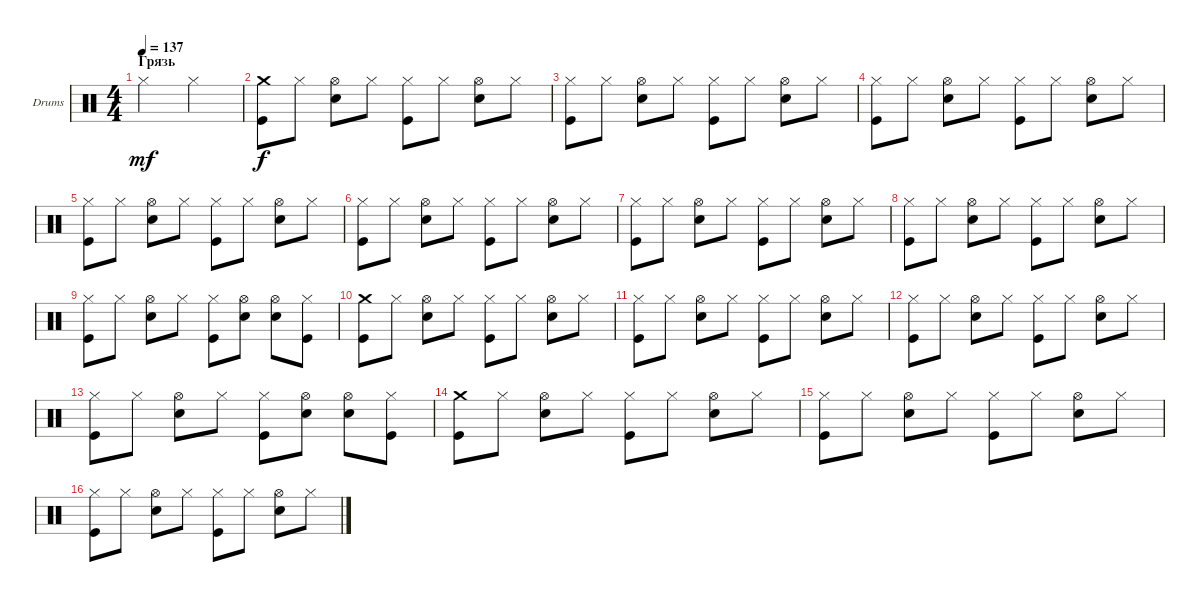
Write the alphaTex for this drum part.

\defaultSystemsLayout 4
\bracketExtendMode nobrackets
\firstSystemTrackNameOrientation horizontal
\otherSystemsTrackNameOrientation horizontal
\track ("Ударные" "Drums") {instrument percussion}
\staff {score}
\articulation defaults
\ts (4 4)
\section ("" "Грязь")
\tempo 137
\clef neutral
\scale
0.474178
\ks c "Hi-Hat (closed)".2{dy mf} "Hi-Hat (closed)".2
|
\scale
0.262911 ("Crash medium (hit)" "Kick (hit)").8{dy f} "Hi-Hat (closed)".8 ("Hi-Hat (open)" "Snare (hit) 2").8 "Hi-Hat (closed)".8 ("Hi-Hat (closed)" "Kick (hit)").8 "Hi-Hat (closed)".8 ("Hi-Hat (open)" "Snare (hit) 2").8 "Hi-Hat (closed)".8 |
\scale
0.262911 ("Hi-Hat (closed)" "Kick (hit)").8 "Hi-Hat (closed)".8 ("Hi-Hat (open)" "Snare (hit) 2").8 "Hi-Hat (closed)".8 ("Hi-Hat (closed)" "Kick (hit)").8 "Hi-Hat (closed)".8 ("Hi-Hat (open)" "Snare (hit) 2").8 "Hi-Hat (closed)".8 |
\scale
0.333333 ("Hi-Hat (closed)" "Kick (hit)").8 "Hi-Hat (closed)".8 ("Hi-Hat (open)" "Snare (hit) 2").8 "Hi-Hat (closed)".8 ("Hi-Hat (closed)" "Kick (hit)").8 "Hi-Hat (closed)".8 ("Hi-Hat (open)" "Snare (hit) 2").8 "Hi-Hat (closed)".8 |
\scale
0.333333 ("Hi-Hat (closed)" "Kick (hit)").8 "Hi-Hat (closed)".8 ("Hi-Hat (open)" "Snare (hit) 2").8 "Hi-Hat (closed)".8 ("Hi-Hat (closed)" "Kick (hit)").8 "Hi-Hat (closed)".8 ("Hi-Hat (open)" "Snare (hit) 2").8 "Hi-Hat (closed)".8 |
\scale
0.333333 ("Hi-Hat (closed)" "Kick (hit)").8 "Hi-Hat (closed)".8 ("Hi-Hat (open)" "Snare (hit) 2").8 "Hi-Hat (closed)".8 ("Hi-Hat (closed)" "Kick (hit)").8 "Hi-Hat (closed)".8 ("Hi-Hat (open)" "Snare (hit) 2").8 "Hi-Hat (closed)".8 |
\scale
0.333333 ("Hi-Hat (closed)" "Kick (hit)").8 "Hi-Hat (closed)".8 ("Hi-Hat (open)" "Snare (hit) 2").8 "Hi-Hat (closed)".8 ("Hi-Hat (closed)" "Kick (hit)").8 "Hi-Hat (closed)".8 ("Hi-Hat (open)" "Snare (hit) 2").8 "Hi-Hat (closed)".8 |
\scale
0.333333 ("Hi-Hat (closed)" "Kick (hit)").8 "Hi-Hat (closed)".8 ("Hi-Hat (open)" "Snare (hit) 2").8 "Hi-Hat (closed)".8 ("Hi-Hat (closed)" "Kick (hit)").8 "Hi-Hat (closed)".8 ("Hi-Hat (open)" "Snare (hit) 2").8 "Hi-Hat (closed)".8 |
\scale
0.333333 ("Hi-Hat (closed)" "Kick (hit)").8 "Hi-Hat (closed)".8 ("Hi-Hat (open)" "Snare (hit) 2").8 "Hi-Hat (closed)".8 ("Hi-Hat (closed)" "Kick (hit)").8 ("Hi-Hat (open)" "Snare (hit) 2").8 ("Hi-Hat (open)" "Snare (hit) 2").8 ("Hi-Hat (closed)" "Kick (hit)").8 |
\scale
0.333333 ("Crash medium (hit)" "Kick (hit)").8 "Hi-Hat (closed)".8 ("Hi-Hat (open)" "Snare (hit) 2").8 "Hi-Hat (closed)".8 ("Hi-Hat (closed)" "Kick (hit)").8 "Hi-Hat (closed)".8 ("Hi-Hat (open)" "Snare (hit) 2").8 "Hi-Hat (closed)".8 |
\scale
0.333333 ("Hi-Hat (closed)" "Kick (hit)").8 "Hi-Hat (closed)".8 ("Hi-Hat (open)" "Snare (hit) 2").8 "Hi-Hat (closed)".8 ("Hi-Hat (closed)" "Kick (hit)").8 "Hi-Hat (closed)".8 ("Hi-Hat (open)" "Snare (hit) 2").8 "Hi-Hat (closed)".8 |
\scale
0.333333 ("Hi-Hat (closed)" "Kick (hit)").8 "Hi-Hat (closed)".8 ("Hi-Hat (open)" "Snare (hit) 2").8 "Hi-Hat (closed)".8 ("Hi-Hat (closed)" "Kick (hit)").8 "Hi-Hat (closed)".8 ("Hi-Hat (open)" "Snare (hit) 2").8 "Hi-Hat (closed)".8 |
\scale
0.333333 ("Hi-Hat (closed)" "Kick (hit)").8 "Hi-Hat (closed)".8 ("Hi-Hat (open)" "Snare (hit) 2").8 "Hi-Hat (closed)".8 ("Hi-Hat (closed)" "Kick (hit)").8 ("Hi-Hat (open)" "Snare (hit) 2").8 ("Hi-Hat (open)" "Snare (hit) 2").8 ("Hi-Hat (closed)" "Kick (hit)").8 |
\scale
0.333333 ("Crash medium (hit)" "Kick (hit)").8 "Hi-Hat (closed)".8 ("Hi-Hat (open)" "Snare (hit) 2").8 "Hi-Hat (closed)".8 ("Hi-Hat (closed)" "Kick (hit)").8 "Hi-Hat (closed)".8 ("Hi-Hat (open)" "Snare (hit) 2").8 "Hi-Hat (closed)".8 |
\scale
0.333333 ("Hi-Hat (closed)" "Kick (hit)").8 "Hi-Hat (closed)".8 ("Hi-Hat (open)" "Snare (hit) 2").8 "Hi-Hat (closed)".8 ("Hi-Hat (closed)" "Kick (hit)").8 "Hi-Hat (closed)".8 ("Hi-Hat (open)" "Snare (hit) 2").8 "Hi-Hat (closed)".8 |
("Hi-Hat (closed)" "Kick (hit)").8 "Hi-Hat (closed)".8 ("Hi-Hat (open)" "Snare (hit) 2").8 "Hi-Hat (closed)".8 ("Hi-Hat (closed)" "Kick (hit)").8 "Hi-Hat (closed)".8 ("Hi-Hat (open)" "Snare (hit) 2").8 "Hi-Hat (closed)".8
